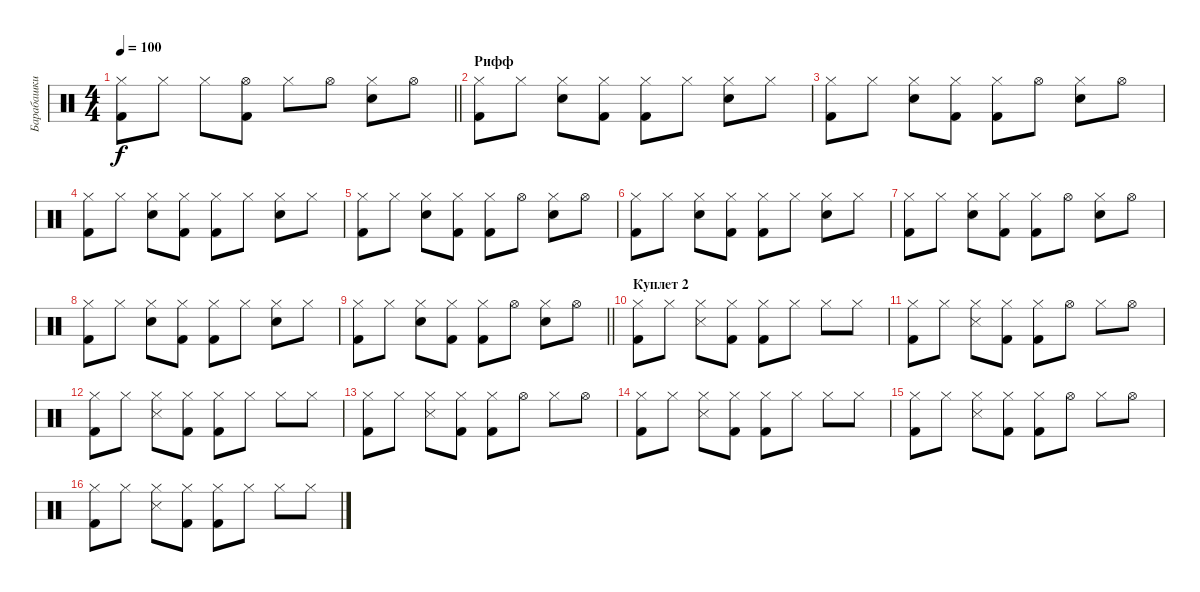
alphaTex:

\track ("Барабашки" "Барабашки") {instrument percussion}
\staff {score}
\articulation defaults
\ts (4 4)
\tempo 100
\clef neutral
\barLineRight lightlight
\ks c
("Hi-Hat (closed)" "Kick (hit) 2").8{dy f} "Hi-Hat (closed)".8 "Hi-Hat (closed)".8 ("Hi-Hat (open)" "Kick (hit) 2").8 "Hi-Hat (closed)".8 "Hi-Hat (open)".8 ("Hi-Hat (closed)" "Electric Snare (hit)").8 "Hi-Hat (open)".8 |
\section ("" "Рифф")
("Hi-Hat (closed)" "Kick (hit) 2").8 "Hi-Hat (closed)".8 ("Hi-Hat (closed)" "Electric Snare (hit)").8 ("Hi-Hat (closed)" "Kick (hit) 2").8 ("Hi-Hat (closed)" "Kick (hit) 2").8 "Hi-Hat (closed)".8 ("Hi-Hat (closed)" "Electric Snare (hit)").8 "Hi-Hat (closed)".8 |
("Hi-Hat (closed)" "Kick (hit) 2").8 "Hi-Hat (closed)".8 ("Hi-Hat (closed)" "Electric Snare (hit)").8 ("Hi-Hat (closed)" "Kick (hit) 2").8 ("Hi-Hat (closed)" "Kick (hit) 2").8 "Hi-Hat (open)".8 ("Hi-Hat (closed)" "Electric Snare (hit)").8 "Hi-Hat (open)".8 |
("Hi-Hat (closed)" "Kick (hit) 2").8 "Hi-Hat (closed)".8 ("Hi-Hat (closed)" "Electric Snare (hit)").8 ("Hi-Hat (closed)" "Kick (hit) 2").8 ("Hi-Hat (closed)" "Kick (hit) 2").8 "Hi-Hat (closed)".8 ("Hi-Hat (closed)" "Electric Snare (hit)").8 "Hi-Hat (closed)".8 |
("Hi-Hat (closed)" "Kick (hit) 2").8 "Hi-Hat (closed)".8 ("Hi-Hat (closed)" "Electric Snare (hit)").8 ("Hi-Hat (closed)" "Kick (hit) 2").8 ("Hi-Hat (closed)" "Kick (hit) 2").8 "Hi-Hat (open)".8 ("Hi-Hat (closed)" "Electric Snare (hit)").8 "Hi-Hat (open)".8 |
("Hi-Hat (closed)" "Kick (hit) 2").8 "Hi-Hat (closed)".8 ("Hi-Hat (closed)" "Electric Snare (hit)").8 ("Hi-Hat (closed)" "Kick (hit) 2").8 ("Hi-Hat (closed)" "Kick (hit) 2").8 "Hi-Hat (closed)".8 ("Hi-Hat (closed)" "Electric Snare (hit)").8 "Hi-Hat (closed)".8 |
("Hi-Hat (closed)" "Kick (hit) 2").8 "Hi-Hat (closed)".8 ("Hi-Hat (closed)" "Electric Snare (hit)").8 ("Hi-Hat (closed)" "Kick (hit) 2").8 ("Hi-Hat (closed)" "Kick (hit) 2").8 "Hi-Hat (open)".8 ("Hi-Hat (closed)" "Electric Snare (hit)").8 "Hi-Hat (open)".8 |
("Hi-Hat (closed)" "Kick (hit) 2").8 "Hi-Hat (closed)".8 ("Hi-Hat (closed)" "Electric Snare (hit)").8 ("Hi-Hat (closed)" "Kick (hit) 2").8 ("Hi-Hat (closed)" "Kick (hit) 2").8 "Hi-Hat (closed)".8 ("Hi-Hat (closed)" "Electric Snare (hit)").8 "Hi-Hat (closed)".8 |
\barLineRight lightlight
("Hi-Hat (closed)" "Kick (hit) 2").8 "Hi-Hat (closed)".8 ("Hi-Hat (closed)" "Electric Snare (hit)").8 ("Hi-Hat (closed)" "Kick (hit) 2").8 ("Hi-Hat (closed)" "Kick (hit) 2").8 "Hi-Hat (open)".8 ("Hi-Hat (closed)" "Electric Snare (hit)").8 "Hi-Hat (open)".8 |
\section ("" "Куплет 2")
("Hi-Hat (closed)" "Kick (hit) 2").8 "Hi-Hat (closed)".8 ("Hi-Hat (closed)" "Snare (side stick) 3").8 ("Hi-Hat (closed)" "Kick (hit) 2").8 ("Hi-Hat (closed)" "Kick (hit) 2").8 "Hi-Hat (closed)".8 "Hi-Hat (closed)".8 "Hi-Hat (closed)".8 |
("Hi-Hat (closed)" "Kick (hit) 2").8 "Hi-Hat (closed)".8 ("Hi-Hat (closed)" "Snare (side stick) 3").8 ("Hi-Hat (closed)" "Kick (hit) 2").8 ("Hi-Hat (closed)" "Kick (hit) 2").8 "Hi-Hat (open)".8 "Hi-Hat (closed)".8 "Hi-Hat (open)".8 |
("Hi-Hat (closed)" "Kick (hit) 2").8 "Hi-Hat (closed)".8 ("Hi-Hat (closed)" "Snare (side stick) 3").8 ("Hi-Hat (closed)" "Kick (hit) 2").8 ("Hi-Hat (closed)" "Kick (hit) 2").8 "Hi-Hat (closed)".8 "Hi-Hat (closed)".8 "Hi-Hat (closed)".8 |
("Hi-Hat (closed)" "Kick (hit) 2").8 "Hi-Hat (closed)".8 ("Hi-Hat (closed)" "Snare (side stick) 3").8 ("Hi-Hat (closed)" "Kick (hit) 2").8 ("Hi-Hat (closed)" "Kick (hit) 2").8 "Hi-Hat (open)".8 "Hi-Hat (closed)".8 "Hi-Hat (open)".8 |
("Hi-Hat (closed)" "Kick (hit) 2").8 "Hi-Hat (closed)".8 ("Hi-Hat (closed)" "Snare (side stick) 3").8 ("Hi-Hat (closed)" "Kick (hit) 2").8 ("Hi-Hat (closed)" "Kick (hit) 2").8 "Hi-Hat (closed)".8 "Hi-Hat (closed)".8 "Hi-Hat (closed)".8 |
("Hi-Hat (closed)" "Kick (hit) 2").8 "Hi-Hat (closed)".8 ("Hi-Hat (closed)" "Snare (side stick) 3").8 ("Hi-Hat (closed)" "Kick (hit) 2").8 ("Hi-Hat (closed)" "Kick (hit) 2").8 "Hi-Hat (open)".8 "Hi-Hat (closed)".8 "Hi-Hat (open)".8 |
("Hi-Hat (closed)" "Kick (hit) 2").8 "Hi-Hat (closed)".8 ("Hi-Hat (closed)" "Snare (side stick) 3").8 ("Hi-Hat (closed)" "Kick (hit) 2").8 ("Hi-Hat (closed)" "Kick (hit) 2").8 "Hi-Hat (closed)".8 "Hi-Hat (closed)".8 "Hi-Hat (closed)".8
